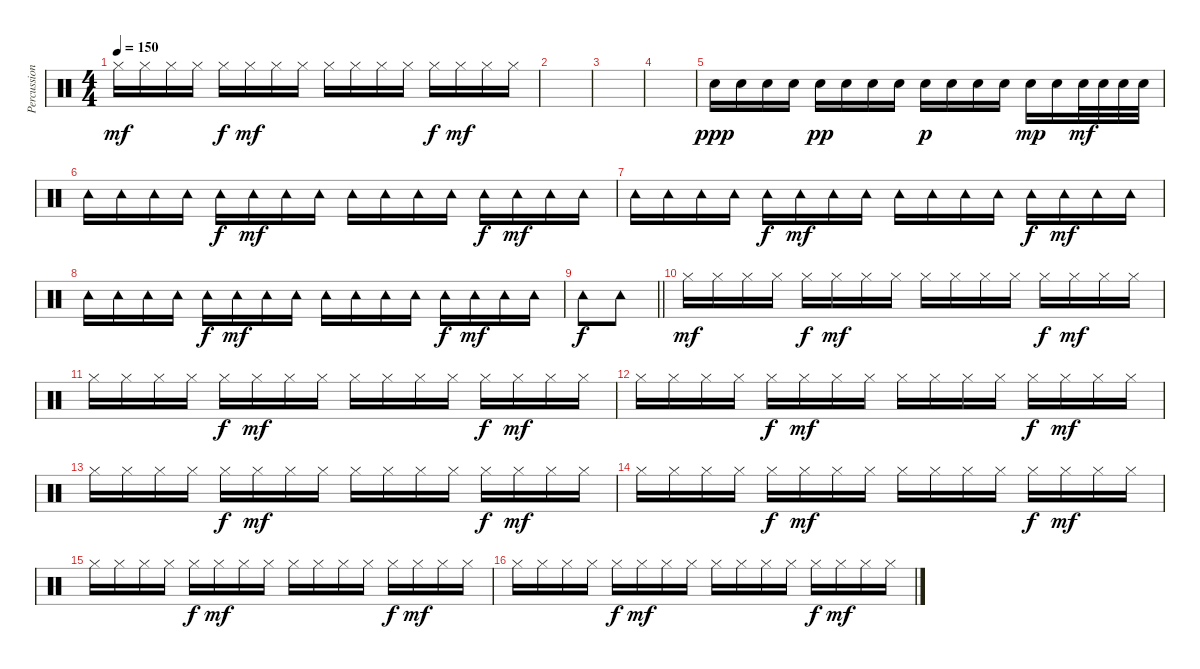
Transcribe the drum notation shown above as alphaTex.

\track ("Percussion 2" "Percussion") {instrument percussion}
\staff {score}
\articulation defaults
\ts (4 4)
\tempo 150
\clef neutral
\ks c "Hi-Hat (closed)".16{dy mf} "Hi-Hat (closed)".16 "Hi-Hat (closed)".16 "Hi-Hat (closed)".16 "Hi-Hat (closed)".16{dy f} "Hi-Hat (closed)".16{dy mf} "Hi-Hat (closed)".16 "Hi-Hat (closed)".16 "Hi-Hat (closed)".16 "Hi-Hat (closed)".16 "Hi-Hat (closed)".16 "Hi-Hat (closed)".16 "Hi-Hat (closed)".16{dy f} "Hi-Hat (closed)".16{dy mf} "Hi-Hat (closed)".16 "Hi-Hat (closed)".16
|
|
|
|
"Snare (hit) 2".16{dy ppp} "Snare (hit) 2".16 "Snare (hit) 2".16 "Snare (hit) 2".16 "Snare (hit) 2".16{dy pp} "Snare (hit) 2".16 "Snare (hit) 2".16 "Snare (hit) 2".16 "Snare (hit) 2".16{dy p} "Snare (hit) 2".16 "Snare (hit) 2".16 "Snare (hit) 2".16 "Snare (hit) 2".16{dy mp} "Snare (hit) 2".16 "Snare (hit) 2".32{dy mf} "Snare (hit) 2".32 "Snare (hit) 2".32 "Snare (hit) 2".32 |
"Tambourine (hit)".16 "Tambourine (hit)".16 "Tambourine (hit)".16 "Tambourine (hit)".16 "Tambourine (hit)".16{dy f} "Tambourine (hit)".16{dy mf} "Tambourine (hit)".16 "Tambourine (hit)".16 "Tambourine (hit)".16 "Tambourine (hit)".16 "Tambourine (hit)".16 "Tambourine (hit)".16 "Tambourine (hit)".16{dy f} "Tambourine (hit)".16{dy mf} "Tambourine (hit)".16 "Tambourine (hit)".16 |
"Tambourine (hit)".16 "Tambourine (hit)".16 "Tambourine (hit)".16 "Tambourine (hit)".16 "Tambourine (hit)".16{dy f} "Tambourine (hit)".16{dy mf} "Tambourine (hit)".16 "Tambourine (hit)".16 "Tambourine (hit)".16 "Tambourine (hit)".16 "Tambourine (hit)".16 "Tambourine (hit)".16 "Tambourine (hit)".16{dy f} "Tambourine (hit)".16{dy mf} "Tambourine (hit)".16 "Tambourine (hit)".16 |
"Tambourine (hit)".16 "Tambourine (hit)".16 "Tambourine (hit)".16 "Tambourine (hit)".16 "Tambourine (hit)".16{dy f} "Tambourine (hit)".16{dy mf} "Tambourine (hit)".16 "Tambourine (hit)".16 "Tambourine (hit)".16 "Tambourine (hit)".16 "Tambourine (hit)".16 "Tambourine (hit)".16 "Tambourine (hit)".16{dy f} "Tambourine (hit)".16{dy mf} "Tambourine (hit)".16 "Tambourine (hit)".16 |
\barLineRight lightlight "Tambourine (hit)".8{dy f} "Tambourine (hit)".8
|
"Hi-Hat (closed)".16{dy mf} "Hi-Hat (closed)".16 "Hi-Hat (closed)".16 "Hi-Hat (closed)".16 "Hi-Hat (closed)".16{dy f} "Hi-Hat (closed)".16{dy mf} "Hi-Hat (closed)".16 "Hi-Hat (closed)".16 "Hi-Hat (closed)".16 "Hi-Hat (closed)".16 "Hi-Hat (closed)".16 "Hi-Hat (closed)".16 "Hi-Hat (closed)".16{dy f} "Hi-Hat (closed)".16{dy mf} "Hi-Hat (closed)".16 "Hi-Hat (closed)".16 |
"Hi-Hat (closed)".16 "Hi-Hat (closed)".16 "Hi-Hat (closed)".16 "Hi-Hat (closed)".16 "Hi-Hat (closed)".16{dy f} "Hi-Hat (closed)".16{dy mf} "Hi-Hat (closed)".16 "Hi-Hat (closed)".16 "Hi-Hat (closed)".16 "Hi-Hat (closed)".16 "Hi-Hat (closed)".16 "Hi-Hat (closed)".16 "Hi-Hat (closed)".16{dy f} "Hi-Hat (closed)".16{dy mf} "Hi-Hat (closed)".16 "Hi-Hat (closed)".16 |
"Hi-Hat (closed)".16 "Hi-Hat (closed)".16 "Hi-Hat (closed)".16 "Hi-Hat (closed)".16 "Hi-Hat (closed)".16{dy f} "Hi-Hat (closed)".16{dy mf} "Hi-Hat (closed)".16 "Hi-Hat (closed)".16 "Hi-Hat (closed)".16 "Hi-Hat (closed)".16 "Hi-Hat (closed)".16 "Hi-Hat (closed)".16 "Hi-Hat (closed)".16{dy f} "Hi-Hat (closed)".16{dy mf} "Hi-Hat (closed)".16 "Hi-Hat (closed)".16 |
"Hi-Hat (closed)".16 "Hi-Hat (closed)".16 "Hi-Hat (closed)".16 "Hi-Hat (closed)".16 "Hi-Hat (closed)".16{dy f} "Hi-Hat (closed)".16{dy mf} "Hi-Hat (closed)".16 "Hi-Hat (closed)".16 "Hi-Hat (closed)".16 "Hi-Hat (closed)".16 "Hi-Hat (closed)".16 "Hi-Hat (closed)".16 "Hi-Hat (closed)".16{dy f} "Hi-Hat (closed)".16{dy mf} "Hi-Hat (closed)".16 "Hi-Hat (closed)".16 |
"Hi-Hat (closed)".16 "Hi-Hat (closed)".16 "Hi-Hat (closed)".16 "Hi-Hat (closed)".16 "Hi-Hat (closed)".16{dy f} "Hi-Hat (closed)".16{dy mf} "Hi-Hat (closed)".16 "Hi-Hat (closed)".16 "Hi-Hat (closed)".16 "Hi-Hat (closed)".16 "Hi-Hat (closed)".16 "Hi-Hat (closed)".16 "Hi-Hat (closed)".16{dy f} "Hi-Hat (closed)".16{dy mf} "Hi-Hat (closed)".16 "Hi-Hat (closed)".16 |
"Hi-Hat (closed)".16 "Hi-Hat (closed)".16 "Hi-Hat (closed)".16 "Hi-Hat (closed)".16 "Hi-Hat (closed)".16{dy f} "Hi-Hat (closed)".16{dy mf} "Hi-Hat (closed)".16 "Hi-Hat (closed)".16 "Hi-Hat (closed)".16 "Hi-Hat (closed)".16 "Hi-Hat (closed)".16 "Hi-Hat (closed)".16 "Hi-Hat (closed)".16{dy f} "Hi-Hat (closed)".16{dy mf} "Hi-Hat (closed)".16 "Hi-Hat (closed)".16 |
"Hi-Hat (closed)".16 "Hi-Hat (closed)".16 "Hi-Hat (closed)".16 "Hi-Hat (closed)".16 "Hi-Hat (closed)".16{dy f} "Hi-Hat (closed)".16{dy mf} "Hi-Hat (closed)".16 "Hi-Hat (closed)".16 "Hi-Hat (closed)".16 "Hi-Hat (closed)".16 "Hi-Hat (closed)".16 "Hi-Hat (closed)".16 "Hi-Hat (closed)".16{dy f} "Hi-Hat (closed)".16{dy mf} "Hi-Hat (closed)".16 "Hi-Hat (closed)".16
